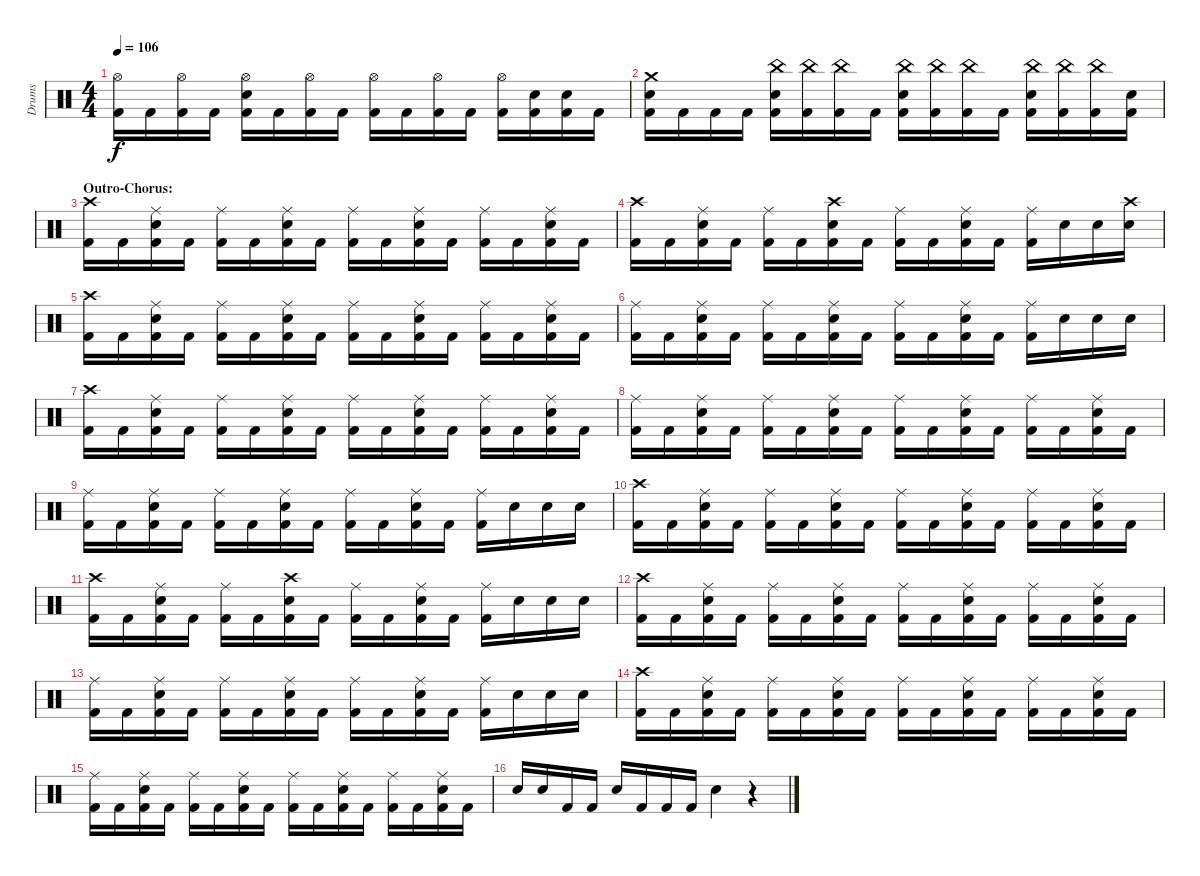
\track ("Drums" "Drums") {instrument percussion}
\staff {score}
\articulation defaults
\ts (4 4)
\tempo 106
\clef neutral
\ks c
("Hi-Hat (open)" "Kick (hit) 2").16{dy f} "Kick (hit) 2".16 ("Hi-Hat (open)" "Kick (hit) 2").16 "Kick (hit) 2".16 ("Hi-Hat (open)" "Electric Snare (hit)" "Kick (hit) 2").16 "Kick (hit) 2".16 ("Hi-Hat (open)" "Kick (hit) 2").16 "Kick (hit) 2".16 ("Hi-Hat (open)" "Kick (hit) 2").16 "Kick (hit) 2".16 ("Hi-Hat (open)" "Kick (hit) 2").16 "Kick (hit) 2".16 ("Hi-Hat (open)" "Kick (hit) 2").16 ("Electric Snare (hit)" "Kick (hit) 2").16 ("Electric Snare (hit)" "Kick (hit) 2").16 "Kick (hit) 2".16 |
("Crash medium (hit)" "Electric Snare (hit)" "Kick (hit) 2").16 "Kick (hit) 2".16 "Kick (hit) 2".16 "Kick (hit) 2".16 ("China (hit)" "Electric Snare (hit)" "Kick (hit) 2").16 ("China (hit)" "Kick (hit) 2").16 ("China (hit)" "Kick (hit) 2").16 "Kick (hit) 2".16 ("China (hit)" "Electric Snare (hit)" "Kick (hit) 2").16 ("China (hit)" "Kick (hit) 2").16 ("China (hit)" "Kick (hit) 2").16 "Kick (hit) 2".16 ("China (hit)" "Electric Snare (hit)" "Kick (hit) 2").16 ("China (hit)" "Kick (hit) 2").16 ("China (hit)" "Kick (hit) 2").16 ("Electric Snare (hit)" "Kick (hit) 2").16 |
\section ("" "Outro-Chorus:")
("Crash high (hit)" "Kick (hit) 2").16 "Kick (hit) 2".16 ("Ride (middle)" "Electric Snare (hit)" "Kick (hit) 2").16 "Kick (hit) 2".16 ("Ride (middle)" "Kick (hit) 2").16 "Kick (hit) 2".16 ("Ride (middle)" "Electric Snare (hit)" "Kick (hit) 2").16 "Kick (hit) 2".16 ("Ride (middle)" "Kick (hit) 2").16 "Kick (hit) 2".16 ("Ride (middle)" "Electric Snare (hit)" "Kick (hit) 2").16 "Kick (hit) 2".16 ("Ride (middle)" "Kick (hit) 2").16 "Kick (hit) 2".16 ("Ride (middle)" "Electric Snare (hit)" "Kick (hit) 2").16 "Kick (hit) 2".16 |
("Crash high (hit)" "Kick (hit) 2").16 "Kick (hit) 2".16 ("Ride (middle)" "Electric Snare (hit)" "Kick (hit) 2").16 "Kick (hit) 2".16 ("Ride (middle)" "Kick (hit) 2").16 "Kick (hit) 2".16 ("Crash high (hit)" "Electric Snare (hit)" "Kick (hit) 2").16 "Kick (hit) 2".16 ("Ride (middle)" "Kick (hit) 2").16 "Kick (hit) 2".16 ("Ride (middle)" "Electric Snare (hit)" "Kick (hit) 2").16 "Kick (hit) 2".16 ("Ride (middle)" "Kick (hit) 2").16 "Electric Snare (hit)".16 "Electric Snare (hit)".16 ("Crash high (hit)" "Electric Snare (hit)").16 |
("Crash high (hit)" "Kick (hit) 2").16 "Kick (hit) 2".16 ("Ride (middle)" "Electric Snare (hit)" "Kick (hit) 2").16 "Kick (hit) 2".16 ("Ride (middle)" "Kick (hit) 2").16 "Kick (hit) 2".16 ("Ride (middle)" "Electric Snare (hit)" "Kick (hit) 2").16 "Kick (hit) 2".16 ("Ride (middle)" "Kick (hit) 2").16 "Kick (hit) 2".16 ("Ride (middle)" "Electric Snare (hit)" "Kick (hit) 2").16 "Kick (hit) 2".16 ("Ride (middle)" "Kick (hit) 2").16 "Kick (hit) 2".16 ("Ride (middle)" "Electric Snare (hit)" "Kick (hit) 2").16 "Kick (hit) 2".16 |
("Ride (middle)" "Kick (hit) 2").16 "Kick (hit) 2".16 ("Ride (middle)" "Electric Snare (hit)" "Kick (hit) 2").16 "Kick (hit) 2".16 ("Ride (middle)" "Kick (hit) 2").16 "Kick (hit) 2".16 ("Ride (middle)" "Electric Snare (hit)" "Kick (hit) 2").16 "Kick (hit) 2".16 ("Ride (middle)" "Kick (hit) 2").16 "Kick (hit) 2".16 ("Ride (middle)" "Electric Snare (hit)" "Kick (hit) 2").16 "Kick (hit) 2".16 ("Ride (middle)" "Kick (hit) 2").16 "Electric Snare (hit)".16 "Electric Snare (hit)".16 "Electric Snare (hit)".16 |
("Crash high (hit)" "Kick (hit) 2").16 "Kick (hit) 2".16 ("Ride (middle)" "Electric Snare (hit)" "Kick (hit) 2").16 "Kick (hit) 2".16 ("Ride (middle)" "Kick (hit) 2").16 "Kick (hit) 2".16 ("Ride (middle)" "Electric Snare (hit)" "Kick (hit) 2").16 "Kick (hit) 2".16 ("Ride (middle)" "Kick (hit) 2").16 "Kick (hit) 2".16 ("Ride (middle)" "Electric Snare (hit)" "Kick (hit) 2").16 "Kick (hit) 2".16 ("Ride (middle)" "Kick (hit) 2").16 "Kick (hit) 2".16 ("Ride (middle)" "Electric Snare (hit)" "Kick (hit) 2").16 "Kick (hit) 2".16 |
("Ride (middle)" "Kick (hit) 2").16 "Kick (hit) 2".16 ("Ride (middle)" "Electric Snare (hit)" "Kick (hit) 2").16 "Kick (hit) 2".16 ("Ride (middle)" "Kick (hit) 2").16 "Kick (hit) 2".16 ("Ride (middle)" "Electric Snare (hit)" "Kick (hit) 2").16 "Kick (hit) 2".16 ("Ride (middle)" "Kick (hit) 2").16 "Kick (hit) 2".16 ("Ride (middle)" "Electric Snare (hit)" "Kick (hit) 2").16 "Kick (hit) 2".16 ("Ride (middle)" "Kick (hit) 2").16 "Kick (hit) 2".16 ("Ride (middle)" "Electric Snare (hit)" "Kick (hit) 2").16 "Kick (hit) 2".16 |
("Ride (middle)" "Kick (hit) 2").16 "Kick (hit) 2".16 ("Ride (middle)" "Electric Snare (hit)" "Kick (hit) 2").16 "Kick (hit) 2".16 ("Ride (middle)" "Kick (hit) 2").16 "Kick (hit) 2".16 ("Ride (middle)" "Electric Snare (hit)" "Kick (hit) 2").16 "Kick (hit) 2".16 ("Ride (middle)" "Kick (hit) 2").16 "Kick (hit) 2".16 ("Ride (middle)" "Electric Snare (hit)" "Kick (hit) 2").16 "Kick (hit) 2".16 ("Ride (middle)" "Kick (hit) 2").16 "Electric Snare (hit)".16 "Electric Snare (hit)".16 "Electric Snare (hit)".16 |
("Crash high (hit)" "Kick (hit) 2").16 "Kick (hit) 2".16 ("Ride (middle)" "Electric Snare (hit)" "Kick (hit) 2").16 "Kick (hit) 2".16 ("Ride (middle)" "Kick (hit) 2").16 "Kick (hit) 2".16 ("Ride (middle)" "Electric Snare (hit)" "Kick (hit) 2").16 "Kick (hit) 2".16 ("Ride (middle)" "Kick (hit) 2").16 "Kick (hit) 2".16 ("Ride (middle)" "Electric Snare (hit)" "Kick (hit) 2").16 "Kick (hit) 2".16 ("Ride (middle)" "Kick (hit) 2").16 "Kick (hit) 2".16 ("Ride (middle)" "Electric Snare (hit)" "Kick (hit) 2").16 "Kick (hit) 2".16 |
("Crash high (hit)" "Kick (hit) 2").16 "Kick (hit) 2".16 ("Ride (middle)" "Electric Snare (hit)" "Kick (hit) 2").16 "Kick (hit) 2".16 ("Ride (middle)" "Kick (hit) 2").16 "Kick (hit) 2".16 ("Crash high (hit)" "Electric Snare (hit)" "Kick (hit) 2").16 "Kick (hit) 2".16 ("Ride (middle)" "Kick (hit) 2").16 "Kick (hit) 2".16 ("Ride (middle)" "Electric Snare (hit)" "Kick (hit) 2").16 "Kick (hit) 2".16 ("Ride (middle)" "Kick (hit) 2").16 "Electric Snare (hit)".16 "Electric Snare (hit)".16 "Electric Snare (hit)".16 |
("Crash high (hit)" "Kick (hit) 2").16 "Kick (hit) 2".16 ("Ride (middle)" "Electric Snare (hit)" "Kick (hit) 2").16 "Kick (hit) 2".16 ("Ride (middle)" "Kick (hit) 2").16 "Kick (hit) 2".16 ("Ride (middle)" "Electric Snare (hit)" "Kick (hit) 2").16 "Kick (hit) 2".16 ("Ride (middle)" "Kick (hit) 2").16 "Kick (hit) 2".16 ("Ride (middle)" "Electric Snare (hit)" "Kick (hit) 2").16 "Kick (hit) 2".16 ("Ride (middle)" "Kick (hit) 2").16 "Kick (hit) 2".16 ("Ride (middle)" "Electric Snare (hit)" "Kick (hit) 2").16 "Kick (hit) 2".16 |
("Ride (middle)" "Kick (hit) 2").16 "Kick (hit) 2".16 ("Ride (middle)" "Electric Snare (hit)" "Kick (hit) 2").16 "Kick (hit) 2".16 ("Ride (middle)" "Kick (hit) 2").16 "Kick (hit) 2".16 ("Ride (middle)" "Electric Snare (hit)" "Kick (hit) 2").16 "Kick (hit) 2".16 ("Ride (middle)" "Kick (hit) 2").16 "Kick (hit) 2".16 ("Ride (middle)" "Electric Snare (hit)" "Kick (hit) 2").16 "Kick (hit) 2".16 ("Ride (middle)" "Kick (hit) 2").16 "Electric Snare (hit)".16 "Electric Snare (hit)".16 "Electric Snare (hit)".16 |
("Crash high (hit)" "Kick (hit) 2").16 "Kick (hit) 2".16 ("Ride (middle)" "Electric Snare (hit)" "Kick (hit) 2").16 "Kick (hit) 2".16 ("Ride (middle)" "Kick (hit) 2").16 "Kick (hit) 2".16 ("Ride (middle)" "Electric Snare (hit)" "Kick (hit) 2").16 "Kick (hit) 2".16 ("Ride (middle)" "Kick (hit) 2").16 "Kick (hit) 2".16 ("Ride (middle)" "Electric Snare (hit)" "Kick (hit) 2").16 "Kick (hit) 2".16 ("Ride (middle)" "Kick (hit) 2").16 "Kick (hit) 2".16 ("Ride (middle)" "Electric Snare (hit)" "Kick (hit) 2").16 "Kick (hit) 2".16 |
("Ride (middle)" "Kick (hit) 2").16 "Kick (hit) 2".16 ("Ride (middle)" "Electric Snare (hit)" "Kick (hit) 2").16 "Kick (hit) 2".16 ("Ride (middle)" "Kick (hit) 2").16 "Kick (hit) 2".16 ("Ride (middle)" "Electric Snare (hit)" "Kick (hit) 2").16 "Kick (hit) 2".16 ("Ride (middle)" "Kick (hit) 2").16 "Kick (hit) 2".16 ("Ride (middle)" "Electric Snare (hit)" "Kick (hit) 2").16 "Kick (hit) 2".16 ("Ride (middle)" "Kick (hit) 2").16 "Kick (hit) 2".16 ("Ride (middle)" "Electric Snare (hit)" "Kick (hit) 2").16 "Kick (hit) 2".16 |
"Electric Snare (hit)".16 "Electric Snare (hit)".16 "Kick (hit) 2".16 "Kick (hit) 2".16 "Electric Snare (hit)".16 "Kick (hit) 2".16 "Kick (hit) 2".16 "Kick (hit) 2".16 "Electric Snare (hit)".4 r.4
